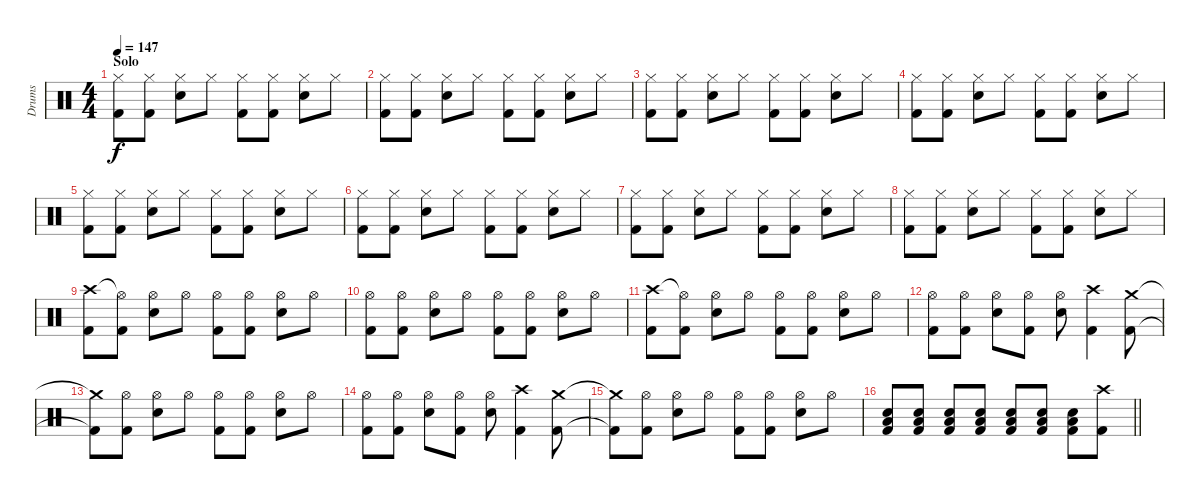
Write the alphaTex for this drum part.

\track ("Drums" "Drums") {instrument percussion}
\staff {score}
\articulation defaults
\ts (4 4)
\section ("" "Solo")
\tempo 147
\clef neutral
\ks c
("Hi-Hat (closed)" "Kick (hit) 2").8{dy f} ("Hi-Hat (closed)" "Kick (hit) 2").8 ("Hi-Hat (closed)" "Snare (hit) 2").8 "Hi-Hat (closed)".8 ("Hi-Hat (closed)" "Kick (hit) 2").8 ("Hi-Hat (closed)" "Kick (hit) 2").8 ("Hi-Hat (closed)" "Snare (hit) 2").8 "Hi-Hat (closed)".8 |
("Hi-Hat (closed)" "Kick (hit) 2").8 ("Hi-Hat (closed)" "Kick (hit) 2").8 ("Hi-Hat (closed)" "Snare (hit) 2").8 "Hi-Hat (closed)".8 ("Hi-Hat (closed)" "Kick (hit) 2").8 ("Hi-Hat (closed)" "Kick (hit) 2").8 ("Hi-Hat (closed)" "Snare (hit) 2").8 "Hi-Hat (closed)".8 |
("Hi-Hat (closed)" "Kick (hit) 2").8 ("Hi-Hat (closed)" "Kick (hit) 2").8 ("Hi-Hat (closed)" "Snare (hit) 2").8 "Hi-Hat (closed)".8 ("Hi-Hat (closed)" "Kick (hit) 2").8 ("Hi-Hat (closed)" "Kick (hit) 2").8 ("Hi-Hat (closed)" "Snare (hit) 2").8 "Hi-Hat (closed)".8 |
("Hi-Hat (closed)" "Kick (hit) 2").8 ("Hi-Hat (closed)" "Kick (hit) 2").8 ("Hi-Hat (closed)" "Snare (hit) 2").8 "Hi-Hat (closed)".8 ("Hi-Hat (closed)" "Kick (hit) 2").8 ("Hi-Hat (closed)" "Kick (hit) 2").8 ("Hi-Hat (closed)" "Snare (hit) 2").8 "Hi-Hat (closed)".8 |
("Hi-Hat (closed)" "Kick (hit) 2").8 ("Hi-Hat (closed)" "Kick (hit) 2").8 ("Hi-Hat (closed)" "Snare (hit) 2").8 "Hi-Hat (closed)".8 ("Hi-Hat (closed)" "Kick (hit) 2").8 ("Hi-Hat (closed)" "Kick (hit) 2").8 ("Hi-Hat (closed)" "Snare (hit) 2").8 "Hi-Hat (closed)".8 |
("Hi-Hat (closed)" "Kick (hit) 2").8 ("Hi-Hat (closed)" "Kick (hit) 2").8 ("Hi-Hat (closed)" "Snare (hit) 2").8 "Hi-Hat (closed)".8 ("Hi-Hat (closed)" "Kick (hit) 2").8 ("Hi-Hat (closed)" "Kick (hit) 2").8 ("Hi-Hat (closed)" "Snare (hit) 2").8 "Hi-Hat (closed)".8 |
("Hi-Hat (closed)" "Kick (hit) 2").8 ("Hi-Hat (closed)" "Kick (hit) 2").8 ("Hi-Hat (closed)" "Snare (hit) 2").8 "Hi-Hat (closed)".8 ("Hi-Hat (closed)" "Kick (hit) 2").8 ("Hi-Hat (closed)" "Kick (hit) 2").8 ("Hi-Hat (closed)" "Snare (hit) 2").8 "Hi-Hat (closed)".8 |
("Hi-Hat (closed)" "Kick (hit) 2").8 ("Hi-Hat (closed)" "Kick (hit) 2").8 ("Hi-Hat (closed)" "Snare (hit) 2").8 "Hi-Hat (closed)".8 ("Hi-Hat (closed)" "Kick (hit) 2").8 ("Hi-Hat (closed)" "Kick (hit) 2").8 ("Hi-Hat (closed)" "Snare (hit) 2").8 "Hi-Hat (closed)".8 |
("Crash high (hit)" "Kick (hit) 2").8 ("Hi-Hat (open)"{t} "Kick (hit) 2").8 ("Hi-Hat (open)" "Snare (hit) 2").8 "Hi-Hat (open)".8 ("Hi-Hat (open)" "Kick (hit) 2").8 ("Hi-Hat (open)" "Kick (hit) 2").8 ("Hi-Hat (open)" "Snare (hit) 2").8 "Hi-Hat (open)".8 |
("Hi-Hat (open)" "Kick (hit) 2").8 ("Hi-Hat (open)" "Kick (hit) 2").8 ("Hi-Hat (open)" "Snare (hit) 2").8 "Hi-Hat (open)".8 ("Hi-Hat (open)" "Kick (hit) 2").8 ("Hi-Hat (open)" "Kick (hit) 2").8 ("Hi-Hat (open)" "Snare (hit) 2").8 "Hi-Hat (open)".8 |
("Crash high (hit)" "Kick (hit) 2").8 ("Hi-Hat (open)"{t} "Kick (hit) 2").8 ("Hi-Hat (open)" "Snare (hit) 2").8 "Hi-Hat (open)".8 ("Hi-Hat (open)" "Kick (hit) 2").8 ("Hi-Hat (open)" "Kick (hit) 2").8 ("Hi-Hat (open)" "Snare (hit) 2").8 "Hi-Hat (open)".8 |
("Hi-Hat (open)" "Kick (hit) 2").8 ("Hi-Hat (open)" "Kick (hit) 2").8 ("Hi-Hat (open)" "Snare (hit) 2").8 ("Hi-Hat (open)" "Kick (hit) 2").8 ("Hi-Hat (open)" "Snare (hit) 2").8 ("Crash high (hit)" "Kick (hit) 2").4 ("Crash medium (hit)" "Kick (hit) 2").8 |
("Crash medium (hit)"{t} "Kick (hit) 2"{t}).8 ("Hi-Hat (open)" "Kick (hit) 2").8 ("Hi-Hat (open)" "Snare (hit) 2").8 "Hi-Hat (open)".8 ("Hi-Hat (open)" "Kick (hit) 2").8 ("Hi-Hat (open)" "Kick (hit) 2").8 ("Hi-Hat (open)" "Snare (hit) 2").8 "Hi-Hat (open)".8 |
("Hi-Hat (open)" "Kick (hit) 2").8 ("Hi-Hat (open)" "Kick (hit) 2").8 ("Hi-Hat (open)" "Snare (hit) 2").8 ("Hi-Hat (open)" "Kick (hit) 2").8 ("Hi-Hat (open)" "Snare (hit) 2").8 ("Crash high (hit)" "Kick (hit) 2").4 ("Crash medium (hit)" "Kick (hit) 2").8 |
("Crash medium (hit)"{t} "Kick (hit) 2"{t}).8 ("Hi-Hat (open)" "Kick (hit) 2").8 ("Hi-Hat (open)" "Snare (hit) 2").8 "Hi-Hat (open)".8 ("Hi-Hat (open)" "Kick (hit) 2").8 ("Hi-Hat (open)" "Kick (hit) 2").8 ("Hi-Hat (open)" "Snare (hit) 2").8 "Hi-Hat (open)".8 |
\barLineRight lightlight
("Snare (hit) 2" "Low Floor Tom (hit)" "Kick (hit) 2").8 ("Snare (hit) 2" "Low Floor Tom (hit)" "Kick (hit) 2").8 ("Snare (hit) 2" "Low Floor Tom (hit)" "Kick (hit) 2").8 ("Snare (hit) 2" "Low Floor Tom (hit)" "Kick (hit) 2").8 ("Snare (hit) 2" "Low Tom (hit)" "Kick (hit) 2").8 ("Snare (hit) 2" "Low Tom (hit)" "Kick (hit) 2").8 ("Snare (hit) 2" "Low Tom (hit)" "Kick (hit) 2").8 ("Crash high (hit)" "Kick (hit) 2").8
